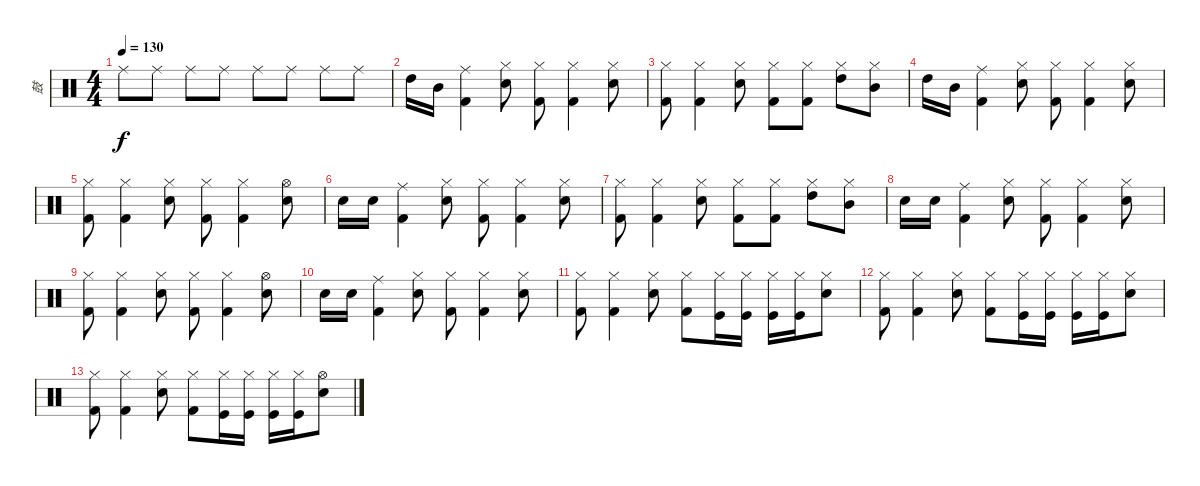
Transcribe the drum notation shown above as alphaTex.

\track ("鼓" "鼓") {instrument percussion}
\staff {score}
\articulation defaults
\ts (4 4)
\tempo 130
\clef neutral
\ks c "Ride (middle)".8{dy f} "Ride (middle)".8 "Ride (middle)".8 "Ride (middle)".8 "Ride (middle)".8 "Ride (middle)".8 "Ride (middle)".8 "Ride (middle)".8
|
"High Tom (hit)".16 "Mid Tom (hit)".16 ("Kick (hit) 2" "Ride (middle)").4 ("Snare (hit) 2" "Hi-Hat (closed)").8 ("Kick (hit) 2" "Hi-Hat (closed)").8 ("Kick (hit) 2" "Hi-Hat (closed)").4 ("Snare (hit) 2" "Hi-Hat (closed)").8 |
("Kick (hit) 2" "Hi-Hat (closed)").8 ("Kick (hit) 2" "Hi-Hat (closed)").4 ("Snare (hit) 2" "Hi-Hat (closed)").8 ("Kick (hit) 2" "Hi-Hat (closed)").8 ("Kick (hit) 2" "Hi-Hat (closed)").8 ("High Tom (hit)" "Hi-Hat (closed)").8 ("Mid Tom (hit)" "Hi-Hat (closed)").8 |
"High Tom (hit)".16 "Mid Tom (hit)".16 ("Kick (hit) 2" "Ride (middle)").4 ("Snare (hit) 2" "Hi-Hat (closed)").8 ("Kick (hit) 2" "Hi-Hat (closed)").8 ("Kick (hit) 2" "Hi-Hat (closed)").4 ("Snare (hit) 2" "Hi-Hat (closed)").8 |
("Kick (hit) 2" "Hi-Hat (closed)").8 ("Kick (hit) 2" "Hi-Hat (closed)").4 ("Snare (hit) 2" "Hi-Hat (closed)").8 ("Kick (hit) 2" "Hi-Hat (closed)").8 ("Kick (hit) 2" "Hi-Hat (closed)").4 ("Snare (hit) 2" "Hi-Hat (open)").8 |
"Electric Snare (hit)".16 "Electric Snare (hit)".16 ("Kick (hit) 2" "Ride (middle)").4 ("Snare (hit) 2" "Hi-Hat (closed)").8 ("Kick (hit) 2" "Hi-Hat (closed)").8 ("Kick (hit) 2" "Hi-Hat (closed)").4 ("Snare (hit) 2" "Hi-Hat (closed)").8 |
("Kick (hit) 2" "Hi-Hat (closed)").8 ("Kick (hit) 2" "Hi-Hat (closed)").4 ("Snare (hit) 2" "Hi-Hat (closed)").8 ("Kick (hit) 2" "Hi-Hat (closed)").8 ("Kick (hit) 2" "Hi-Hat (closed)").8 ("High Tom (hit)" "Hi-Hat (closed)").8 ("Mid Tom (hit)" "Hi-Hat (closed)").8 |
"Electric Snare (hit)".16 "Electric Snare (hit)".16 ("Kick (hit) 2" "Ride (middle)").4 ("Snare (hit) 2" "Hi-Hat (closed)").8 ("Kick (hit) 2" "Hi-Hat (closed)").8 ("Kick (hit) 2" "Hi-Hat (closed)").4 ("Snare (hit) 2" "Hi-Hat (closed)").8 |
("Kick (hit) 2" "Hi-Hat (closed)").8 ("Kick (hit) 2" "Hi-Hat (closed)").4 ("Snare (hit) 2" "Hi-Hat (closed)").8 ("Kick (hit) 2" "Hi-Hat (closed)").8 ("Kick (hit) 2" "Hi-Hat (closed)").4 ("Snare (hit) 2" "Hi-Hat (open)").8 |
"Electric Snare (hit)".16 "Electric Snare (hit)".16 ("Kick (hit) 2" "Ride (middle)").4 ("Snare (hit) 2" "Hi-Hat (closed)").8 ("Kick (hit) 2" "Hi-Hat (closed)").8 ("Kick (hit) 2" "Hi-Hat (closed)").4 ("Snare (hit) 2" "Hi-Hat (closed)").8 |
("Kick (hit) 2" "Hi-Hat (closed)").8 ("Kick (hit) 2" "Hi-Hat (closed)").4 ("Snare (hit) 2" "Hi-Hat (closed)").8 ("Kick (hit) 2" "Hi-Hat (closed)").8 ("Kick (hit)" "Hi-Hat (closed)").16 ("Kick (hit)" "Hi-Hat (closed)").16 ("Kick (hit)" "Hi-Hat (closed)").16 ("Kick (hit)" "Hi-Hat (closed)").16 ("Snare (hit) 2" "Hi-Hat (closed)").8 |
("Kick (hit) 2" "Hi-Hat (closed)").8 ("Kick (hit) 2" "Hi-Hat (closed)").4 ("Snare (hit) 2" "Hi-Hat (closed)").8 ("Kick (hit) 2" "Hi-Hat (closed)").8 ("Kick (hit)" "Hi-Hat (closed)").16 ("Kick (hit)" "Hi-Hat (closed)").16 ("Kick (hit)" "Hi-Hat (closed)").16 ("Kick (hit)" "Hi-Hat (closed)").16 ("Snare (hit) 2" "Hi-Hat (closed)").8 |
("Kick (hit) 2" "Hi-Hat (closed)").8 ("Kick (hit) 2" "Hi-Hat (closed)").4 ("Snare (hit) 2" "Hi-Hat (closed)").8 ("Kick (hit) 2" "Hi-Hat (closed)").8 ("Kick (hit)" "Hi-Hat (closed)").16 ("Kick (hit)" "Hi-Hat (closed)").16 ("Kick (hit)" "Hi-Hat (closed)").16 ("Kick (hit)" "Hi-Hat (closed)").16 ("Snare (hit) 2" "Hi-Hat (open)").8
